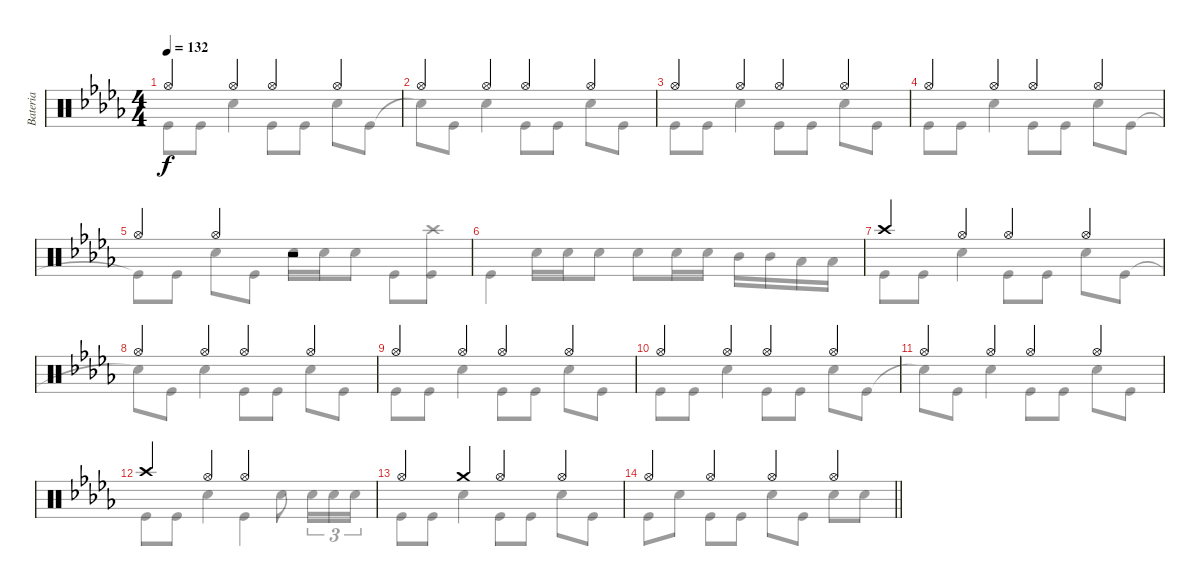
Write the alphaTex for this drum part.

\track ("Bateria" "Bateria") {instrument percussion}
\staff {score}
\articulation defaults
\voice
\ts (4 4)
\tempo 132
\clef neutral
\ks db "Hi-Hat (open)".4{dy f} "Hi-Hat (open)".4 "Hi-Hat (open)".4 "Hi-Hat (open)".4
|
"Hi-Hat (open)".4 "Hi-Hat (open)".4 "Hi-Hat (open)".4 "Hi-Hat (open)".4 |
"Hi-Hat (open)".4 "Hi-Hat (open)".4 "Hi-Hat (open)".4 "Hi-Hat (open)".4 |
"Hi-Hat (open)".4 "Hi-Hat (open)".4 "Hi-Hat (open)".4 "Hi-Hat (open)".4 |
"Hi-Hat (open)".4 "Hi-Hat (open)".4 r.2 |
|
"Crash high (hit)".4 "Hi-Hat (open)".4 "Hi-Hat (open)".4 "Hi-Hat (open)".4 |
"Hi-Hat (open)".4 "Hi-Hat (open)".4 "Hi-Hat (open)".4 "Hi-Hat (open)".4 |
"Hi-Hat (open)".4 "Hi-Hat (open)".4 "Hi-Hat (open)".4 "Hi-Hat (open)".4 |
"Hi-Hat (open)".4 "Hi-Hat (open)".4 "Hi-Hat (open)".4 "Hi-Hat (open)".4 |
"Hi-Hat (open)".4 "Hi-Hat (open)".4 "Hi-Hat (open)".4 "Hi-Hat (open)".4 |
"Crash high (hit)".4 "Hi-Hat (open)".4 "Hi-Hat (open)".2 |
"Hi-Hat (open)".4 "Crash medium (hit)".4 "Hi-Hat (open)".4 "Hi-Hat (open)".4 |
\barLineRight lightlight "Hi-Hat (open)".4 "Hi-Hat (open)".4 "Hi-Hat (open)".4 "Hi-Hat (open)".4
\voice
\clef neutral
\ottava regular
\simile none
\ks db "Kick (hit)".8{dy f} "Kick (hit)".8 "Snare (hit) 2".4 "Kick (hit)".8 "Kick (hit)".8 "Snare (hit) 2".8 "Kick (hit)".8
|
"Snare (hit) 2"{t}.8 "Kick (hit)".8 "Snare (hit) 2".4 "Kick (hit)".8 "Kick (hit)".8 "Snare (hit) 2".8 "Kick (hit)".8 |
"Kick (hit)".8 "Kick (hit)".8 "Snare (hit) 2".4 "Kick (hit)".8 "Kick (hit)".8 "Snare (hit) 2".8 "Kick (hit)".8 |
"Kick (hit)".8 "Kick (hit)".8 "Snare (hit) 2".4 "Kick (hit)".8 "Kick (hit)".8 "Snare (hit) 2".8 "Kick (hit)".8 |
"Kick (hit)"{t}.8 "Kick (hit)".8 "Snare (hit) 2".8 "Kick (hit)".8 "Snare (hit) 2".16 "Snare (hit) 2".16 "Snare (hit) 2".8 "Kick (hit)".8 ("Crash high (hit)" "Kick (hit)").8 |
"Kick (hit)".4 "Snare (hit) 2".16 "Snare (hit) 2".16 "Snare (hit) 2".8 "Snare (hit) 2".8 "Snare (hit) 2".16 "Snare (hit) 2".16 "Mid Tom (hit)".16 "Mid Tom (hit)".16 "Low Tom (hit)".16 "Low Tom (hit)".16 |
"Kick (hit)".8 "Kick (hit)".8 "Snare (hit) 2".4 "Kick (hit)".8 "Kick (hit)".8 "Snare (hit) 2".8 "Kick (hit)".8 |
"Snare (hit)"{t}.8 "Kick (hit)".8 "Snare (hit) 2".4 "Kick (hit)".8 "Kick (hit)".8 "Snare (hit) 2".8 "Kick (hit)".8 |
"Kick (hit)".8 "Kick (hit)".8 "Snare (hit) 2".4 "Kick (hit)".8 "Kick (hit)".8 "Snare (hit) 2".8 "Kick (hit)".8 |
"Kick (hit)".8 "Kick (hit)".8 "Snare (hit) 2".4 "Kick (hit)".8 "Kick (hit)".8 "Snare (hit) 2".8 "Kick (hit)".8 |
"Snare (hit)"{t}.8 "Kick (hit)".8 "Snare (hit) 2".4 "Kick (hit)".8 "Kick (hit)".8 "Snare (hit) 2".8 "Kick (hit)".8 |
"Kick (hit)".8 "Kick (hit)".8 "Snare (hit) 2".4 "Kick (hit)".4 "Snare (hit) 2".8 "Snare (hit) 2".16{tu (3 2)} "Snare (hit) 2".16{tu (3 2)} "Snare (hit) 2".16{tu (3 2)} |
"Kick (hit)".8 "Kick (hit)".8 "Snare (hit) 2".4 "Kick (hit)".8 "Kick (hit)".8 "Snare (hit) 2".8 "Kick (hit)".8 |
\barLineRight lightlight "Kick (hit)".8 "Snare (hit) 2".8 "Kick (hit)".8 "Kick (hit)".8 "Snare (hit) 2".8 "Kick (hit)".8 "Snare (hit) 2".8 "Snare (hit) 2".8
